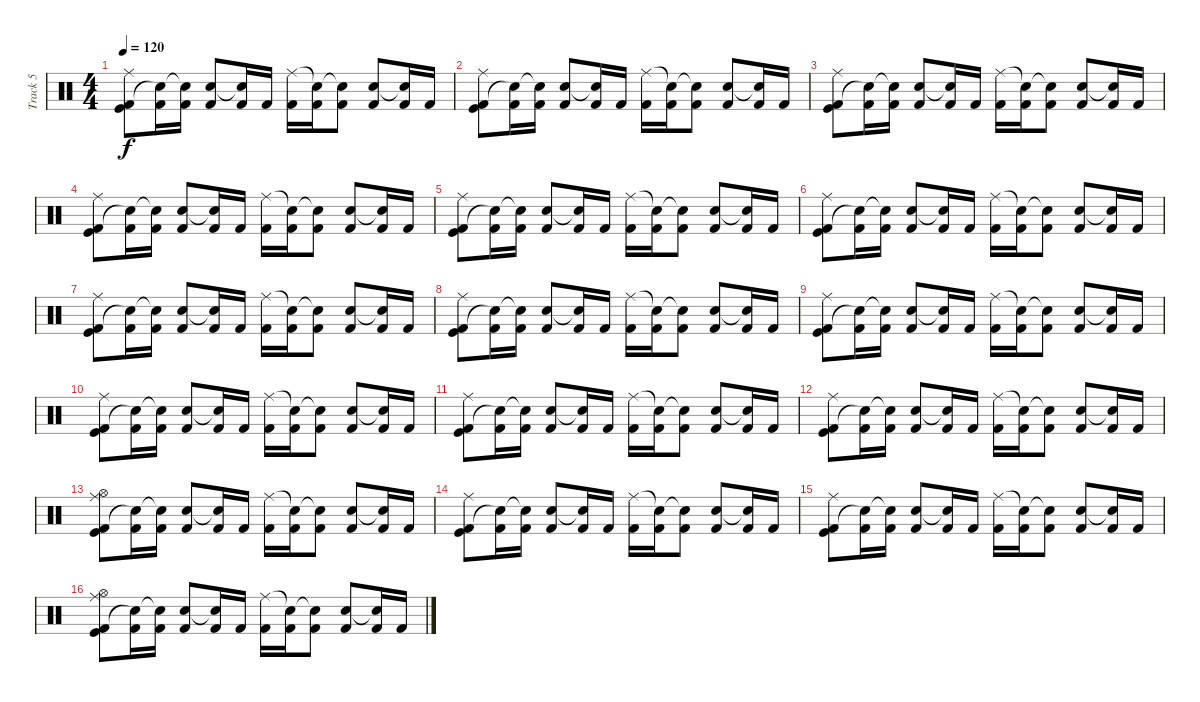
\track ("Track 5" "Track 5") {instrument percussion}
\staff {score}
\articulation defaults
\ts (4 4)
\tempo 120
\clef neutral
\ks c
("Kick (hit)" "Kick (hit) 2" "Ride (middle)").8{dy f} ("Kick (hit) 2" "Snare (hit)"{t}).16 ("Kick (hit) 2" "Snare (hit)"{t}).16 ("Kick (hit) 2" "Snare (hit) 2").8 ("Kick (hit) 2" "Snare (hit)"{t}).16 "Kick (hit) 2".16 ("Kick (hit) 2" "Ride (middle)").16 ("Kick (hit) 2" "Snare (hit)"{t}).16 ("Kick (hit) 2" "Snare (hit)"{t}).8 ("Kick (hit) 2" "Snare (hit) 2").8 ("Kick (hit) 2" "Snare (hit)"{t}).16 "Kick (hit) 2".16 |
("Kick (hit)" "Kick (hit) 2" "Ride (middle)").8 ("Kick (hit) 2" "Snare (hit)"{t}).16 ("Kick (hit) 2" "Snare (hit)"{t}).16 ("Kick (hit) 2" "Snare (hit) 2").8 ("Kick (hit) 2" "Snare (hit)"{t}).16 "Kick (hit) 2".16 ("Kick (hit) 2" "Ride (middle)").16 ("Kick (hit) 2" "Snare (hit)"{t}).16 ("Kick (hit) 2" "Snare (hit)"{t}).8 ("Kick (hit) 2" "Snare (hit) 2").8 ("Kick (hit) 2" "Snare (hit)"{t}).16 "Kick (hit) 2".16 |
("Kick (hit)" "Kick (hit) 2" "Ride (middle)").8 ("Kick (hit) 2" "Snare (hit)"{t}).16 ("Kick (hit) 2" "Snare (hit)"{t}).16 ("Kick (hit) 2" "Snare (hit) 2").8 ("Kick (hit) 2" "Snare (hit)"{t}).16 "Kick (hit) 2".16 ("Kick (hit) 2" "Ride (middle)").16 ("Kick (hit) 2" "Snare (hit)"{t}).16 ("Kick (hit) 2" "Snare (hit)"{t}).8 ("Kick (hit) 2" "Snare (hit) 2").8 ("Kick (hit) 2" "Snare (hit)"{t}).16 "Kick (hit) 2".16 |
("Kick (hit)" "Kick (hit) 2" "Ride (middle)").8 ("Kick (hit) 2" "Snare (hit)"{t}).16 ("Kick (hit) 2" "Snare (hit)"{t}).16 ("Kick (hit) 2" "Snare (hit) 2").8 ("Kick (hit) 2" "Snare (hit)"{t}).16 "Kick (hit) 2".16 ("Kick (hit) 2" "Ride (middle)").16 ("Kick (hit) 2" "Snare (hit)"{t}).16 ("Kick (hit) 2" "Snare (hit)"{t}).8 ("Kick (hit) 2" "Snare (hit) 2").8 ("Kick (hit) 2" "Snare (hit)"{t}).16 "Kick (hit) 2".16 |
("Kick (hit)" "Kick (hit) 2" "Ride (middle)").8 ("Kick (hit) 2" "Snare (hit)"{t}).16 ("Kick (hit) 2" "Snare (hit)"{t}).16 ("Kick (hit) 2" "Snare (hit) 2").8 ("Kick (hit) 2" "Snare (hit)"{t}).16 "Kick (hit) 2".16 ("Kick (hit) 2" "Ride (middle)").16 ("Kick (hit) 2" "Snare (hit)"{t}).16 ("Kick (hit) 2" "Snare (hit)"{t}).8 ("Kick (hit) 2" "Snare (hit) 2").8 ("Kick (hit) 2" "Snare (hit)"{t}).16 "Kick (hit) 2".16 |
("Kick (hit)" "Kick (hit) 2" "Ride (middle)").8 ("Kick (hit) 2" "Snare (hit)"{t}).16 ("Kick (hit) 2" "Snare (hit)"{t}).16 ("Kick (hit) 2" "Snare (hit) 2").8 ("Kick (hit) 2" "Snare (hit)"{t}).16 "Kick (hit) 2".16 ("Kick (hit) 2" "Ride (middle)").16 ("Kick (hit) 2" "Snare (hit)"{t}).16 ("Kick (hit) 2" "Snare (hit)"{t}).8 ("Kick (hit) 2" "Snare (hit) 2").8 ("Kick (hit) 2" "Snare (hit)"{t}).16 "Kick (hit) 2".16 |
("Kick (hit)" "Kick (hit) 2" "Ride (middle)").8 ("Kick (hit) 2" "Snare (hit)"{t}).16 ("Kick (hit) 2" "Snare (hit)"{t}).16 ("Kick (hit) 2" "Snare (hit) 2").8 ("Kick (hit) 2" "Snare (hit)"{t}).16 "Kick (hit) 2".16 ("Kick (hit) 2" "Ride (middle)").16 ("Kick (hit) 2" "Snare (hit)"{t}).16 ("Kick (hit) 2" "Snare (hit)"{t}).8 ("Kick (hit) 2" "Snare (hit) 2").8 ("Kick (hit) 2" "Snare (hit)"{t}).16 "Kick (hit) 2".16 |
("Kick (hit)" "Kick (hit) 2" "Ride (middle)").8 ("Kick (hit) 2" "Snare (hit)"{t}).16 ("Kick (hit) 2" "Snare (hit)"{t}).16 ("Kick (hit) 2" "Snare (hit) 2").8 ("Kick (hit) 2" "Snare (hit)"{t}).16 "Kick (hit) 2".16 ("Kick (hit) 2" "Ride (middle)").16 ("Kick (hit) 2" "Snare (hit)"{t}).16 ("Kick (hit) 2" "Snare (hit)"{t}).8 ("Kick (hit) 2" "Snare (hit) 2").8 ("Kick (hit) 2" "Snare (hit)"{t}).16 "Kick (hit) 2".16 |
("Kick (hit)" "Kick (hit) 2" "Ride (middle)").8 ("Kick (hit) 2" "Snare (hit)"{t}).16 ("Kick (hit) 2" "Snare (hit)"{t}).16 ("Kick (hit) 2" "Snare (hit) 2").8 ("Kick (hit) 2" "Snare (hit)"{t}).16 "Kick (hit) 2".16 ("Kick (hit) 2" "Ride (middle)").16 ("Kick (hit) 2" "Snare (hit)"{t}).16 ("Kick (hit) 2" "Snare (hit)"{t}).8 ("Kick (hit) 2" "Snare (hit) 2").8 ("Kick (hit) 2" "Snare (hit)"{t}).16 "Kick (hit) 2".16 |
("Kick (hit)" "Kick (hit) 2" "Ride (middle)").8 ("Kick (hit) 2" "Snare (hit)"{t}).16 ("Kick (hit) 2" "Snare (hit)"{t}).16 ("Kick (hit) 2" "Snare (hit) 2").8 ("Kick (hit) 2" "Snare (hit)"{t}).16 "Kick (hit) 2".16 ("Kick (hit) 2" "Ride (middle)").16 ("Kick (hit) 2" "Snare (hit)"{t}).16 ("Kick (hit) 2" "Snare (hit)"{t}).8 ("Kick (hit) 2" "Snare (hit) 2").8 ("Kick (hit) 2" "Snare (hit)"{t}).16 "Kick (hit) 2".16 |
("Kick (hit)" "Kick (hit) 2" "Ride (middle)").8 ("Kick (hit) 2" "Snare (hit)"{t}).16 ("Kick (hit) 2" "Snare (hit)"{t}).16 ("Kick (hit) 2" "Snare (hit) 2").8 ("Kick (hit) 2" "Snare (hit)"{t}).16 "Kick (hit) 2".16 ("Kick (hit) 2" "Ride (middle)").16 ("Kick (hit) 2" "Snare (hit)"{t}).16 ("Kick (hit) 2" "Snare (hit)"{t}).8 ("Kick (hit) 2" "Snare (hit) 2").8 ("Kick (hit) 2" "Snare (hit)"{t}).16 "Kick (hit) 2".16 |
("Kick (hit)" "Kick (hit) 2" "Ride (middle)").8 ("Kick (hit) 2" "Snare (hit)"{t}).16 ("Kick (hit) 2" "Snare (hit)"{t}).16 ("Kick (hit) 2" "Snare (hit) 2").8 ("Kick (hit) 2" "Snare (hit)"{t}).16 "Kick (hit) 2".16 ("Kick (hit) 2" "Ride (middle)").16 ("Kick (hit) 2" "Snare (hit)"{t}).16 ("Kick (hit) 2" "Snare (hit)"{t}).8 ("Kick (hit) 2" "Snare (hit) 2").8 ("Kick (hit) 2" "Snare (hit)"{t}).16 "Kick (hit) 2".16 |
("Kick (hit)" "Kick (hit) 2" "Ride (middle)" "Hi-Hat (open)").8 ("Kick (hit) 2" "Snare (hit)"{t}).16 ("Kick (hit) 2" "Snare (hit)"{t}).16 ("Kick (hit) 2" "Snare (hit) 2").8 ("Kick (hit) 2" "Snare (hit)"{t}).16 "Kick (hit) 2".16 ("Kick (hit) 2" "Ride (middle)").16 ("Kick (hit) 2" "Snare (hit)"{t}).16 ("Kick (hit) 2" "Snare (hit)"{t}).8 ("Kick (hit) 2" "Snare (hit) 2").8 ("Kick (hit) 2" "Snare (hit)"{t}).16 "Kick (hit) 2".16 |
("Kick (hit)" "Kick (hit) 2" "Ride (middle)").8 ("Kick (hit) 2" "Snare (hit)"{t}).16 ("Kick (hit) 2" "Snare (hit)"{t}).16 ("Kick (hit) 2" "Snare (hit) 2").8 ("Kick (hit) 2" "Snare (hit)"{t}).16 "Kick (hit) 2".16 ("Kick (hit) 2" "Ride (middle)").16 ("Kick (hit) 2" "Snare (hit)"{t}).16 ("Kick (hit) 2" "Snare (hit)"{t}).8 ("Kick (hit) 2" "Snare (hit) 2").8 ("Kick (hit) 2" "Snare (hit)"{t}).16 "Kick (hit) 2".16 |
("Kick (hit)" "Kick (hit) 2" "Ride (middle)").8 ("Kick (hit) 2" "Snare (hit)"{t}).16 ("Kick (hit) 2" "Snare (hit)"{t}).16 ("Kick (hit) 2" "Snare (hit) 2").8 ("Kick (hit) 2" "Snare (hit)"{t}).16 "Kick (hit) 2".16 ("Kick (hit) 2" "Ride (middle)").16 ("Kick (hit) 2" "Snare (hit)"{t}).16 ("Kick (hit) 2" "Snare (hit)"{t}).8 ("Kick (hit) 2" "Snare (hit) 2").8 ("Kick (hit) 2" "Snare (hit)"{t}).16 "Kick (hit) 2".16 |
("Kick (hit)" "Kick (hit) 2" "Ride (middle)" "Hi-Hat (open)").8 ("Kick (hit) 2" "Snare (hit)"{t}).16 ("Kick (hit) 2" "Snare (hit)"{t}).16 ("Kick (hit) 2" "Snare (hit) 2").8 ("Kick (hit) 2" "Snare (hit)"{t}).16 "Kick (hit) 2".16 ("Kick (hit) 2" "Ride (middle)").16 ("Kick (hit) 2" "Snare (hit)"{t}).16 ("Kick (hit) 2" "Snare (hit)"{t}).8 ("Kick (hit) 2" "Snare (hit) 2").8 ("Kick (hit) 2" "Snare (hit)"{t}).16 "Kick (hit) 2".16
